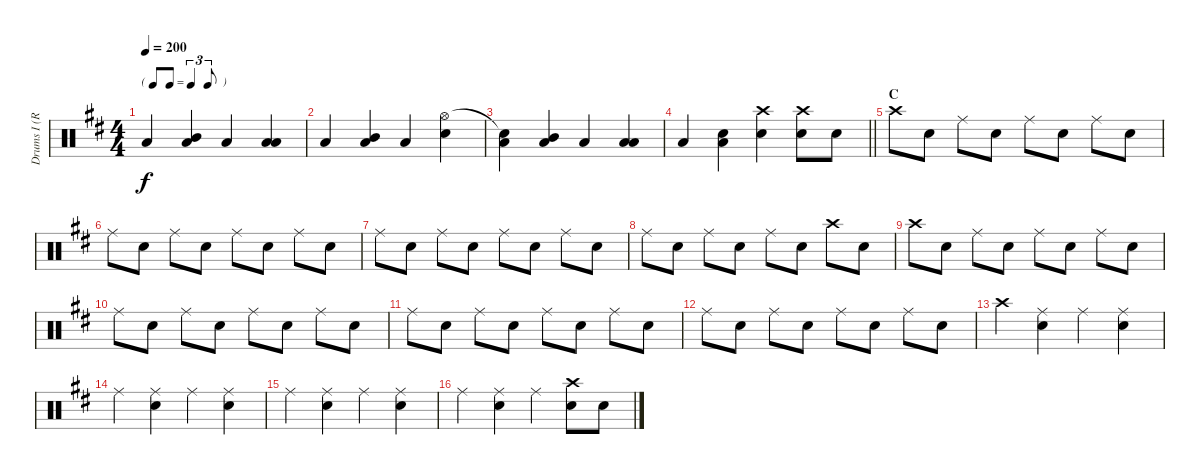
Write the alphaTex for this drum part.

\track ("Drums I (Ruka)" "Drums I (R") {instrument percussion}
\staff {score}
\articulation defaults
\ts (4 4)
\tf triplet8th
\tempo 200
\clef neutral
\ks d "Low Floor Tom (hit)".4{dy f}
("Mid Tom (hit)" "Low Floor Tom (hit)").4 "Low Floor Tom (hit)".4 ("Low Tom (hit)" "Low Floor Tom (hit)").4 |
"Low Floor Tom (hit)".4 ("Mid Tom (hit)" "Low Floor Tom (hit)").4 "Low Floor Tom (hit)".4 ("Hi-Hat (open)" "Snare (hit) 2").4 |
("Snare (hit)"{t} "Low Floor Tom (hit)").4 ("Mid Tom (hit)" "Low Floor Tom (hit)").4 "Low Floor Tom (hit)".4 ("Low Tom (hit)" "Low Floor Tom (hit)").4 |
\barLineRight lightlight "Low Floor Tom (hit)".4
("Snare (hit) 2" "Low Floor Tom (hit)").4 ("Crash high (hit)" "Snare (hit) 2").4 ("Crash high (hit)" "Snare (hit) 2").8 "Snare (hit) 2".8 |
\section ("" "C")
"Crash high (hit)".8 "Snare (hit) 2".8 "Ride (middle)".8 "Snare (hit) 2".8 "Ride (middle)".8 "Snare (hit) 2".8 "Ride (middle)".8 "Snare (hit) 2".8 |
"Ride (middle)".8 "Snare (hit) 2".8 "Ride (middle)".8 "Snare (hit) 2".8 "Ride (middle)".8 "Snare (hit) 2".8 "Ride (middle)".8 "Snare (hit) 2".8 |
"Ride (middle)".8 "Snare (hit) 2".8 "Ride (middle)".8 "Snare (hit) 2".8 "Ride (middle)".8 "Snare (hit) 2".8 "Ride (middle)".8 "Snare (hit) 2".8 |
"Ride (middle)".8 "Snare (hit) 2".8 "Ride (middle)".8 "Snare (hit) 2".8 "Ride (middle)".8 "Snare (hit) 2".8 "Crash high (hit)".8 "Snare (hit) 2".8 |
"Crash high (hit)".8 "Snare (hit) 2".8 "Ride (middle)".8 "Snare (hit) 2".8 "Ride (middle)".8 "Snare (hit) 2".8 "Ride (middle)".8 "Snare (hit) 2".8 |
"Ride (middle)".8 "Snare (hit) 2".8 "Ride (middle)".8 "Snare (hit) 2".8 "Ride (middle)".8 "Snare (hit) 2".8 "Ride (middle)".8 "Snare (hit) 2".8 |
"Ride (middle)".8 "Snare (hit) 2".8 "Ride (middle)".8 "Snare (hit) 2".8 "Ride (middle)".8 "Snare (hit) 2".8 "Ride (middle)".8 "Snare (hit) 2".8 |
"Ride (middle)".8 "Snare (hit) 2".8 "Ride (middle)".8 "Snare (hit) 2".8 "Ride (middle)".8 "Snare (hit) 2".8 "Ride (middle)".8 "Snare (hit) 2".8 |
"Crash high (hit)".4 ("Ride (middle)" "Snare (hit) 2").4 "Ride (middle)".4 ("Ride (middle)" "Snare (hit) 2").4 |
"Ride (middle)".4 ("Ride (middle)" "Snare (hit) 2").4 "Ride (middle)".4 ("Ride (middle)" "Snare (hit) 2").4 |
"Ride (middle)".4 ("Ride (middle)" "Snare (hit) 2").4 "Ride (middle)".4 ("Ride (middle)" "Snare (hit) 2").4 |
"Ride (middle)".4 ("Ride (middle)" "Snare (hit) 2").4 "Ride (middle)".4 ("Crash high (hit)" "Snare (hit) 2").8 "Snare (hit) 2".8
